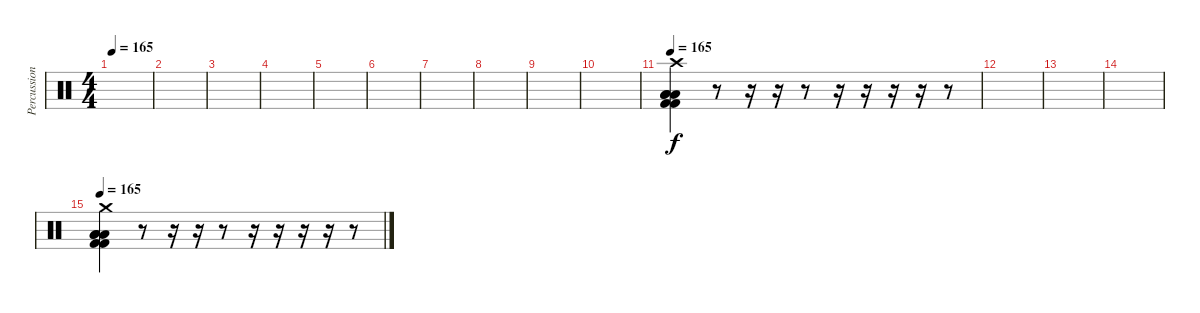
\track ("Percussion dubbs" "Percussion") {instrument percussion}
\staff {score}
\articulation defaults
\ts (4 4)
\tempo 165
\clef neutral
\ks c
|
|
|
|
|
|
|
|
|
|
\tempo 165
("Crash high (hit)" "Low Floor Tom (hit)" "Low Floor Tom (hit)" "Low Floor Tom (hit)" "Kick (hit) 2" "Kick (hit) 2").4{balance 0} r.8 r.16 r.16 r.8 r.16 r.16 r.16 r.16 r.8 |
|
|
|
\tempo 165
("Crash medium (hit)" "Low Floor Tom (hit)" "Low Floor Tom (hit)" "Low Floor Tom (hit)" "Kick (hit) 2" "Kick (hit) 2").4 r.8 r.16 r.16 r.8 r.16 r.16 r.16 r.16 r.8
